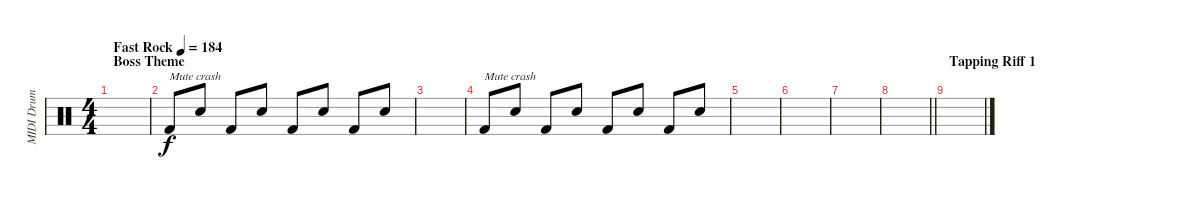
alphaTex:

\track ("MIDI Drum Overdub" "MIDI Drum ") {instrument percussion}
\staff {score}
\articulation defaults
\ts (4 4)
\section ("" "Boss Theme")
\tempo (184 "Fast Rock")
\clef neutral
\ks c
|
"Kick (hit) 2".8{txt "Mute crash"} "Snare (hit) 2".8 "Kick (hit) 2".8 "Snare (hit) 2".8 "Kick (hit) 2".8 "Snare (hit) 2".8 "Kick (hit) 2".8 "Snare (hit) 2".8 |
|
"Kick (hit) 2".8{txt "Mute crash"} "Snare (hit) 2".8 "Kick (hit) 2".8 "Snare (hit) 2".8 "Kick (hit) 2".8 "Snare (hit) 2".8 "Kick (hit) 2".8 "Snare (hit) 2".8 |
|
|
|
\barLineRight lightlight
|
\section ("" "Tapping Riff 1")
